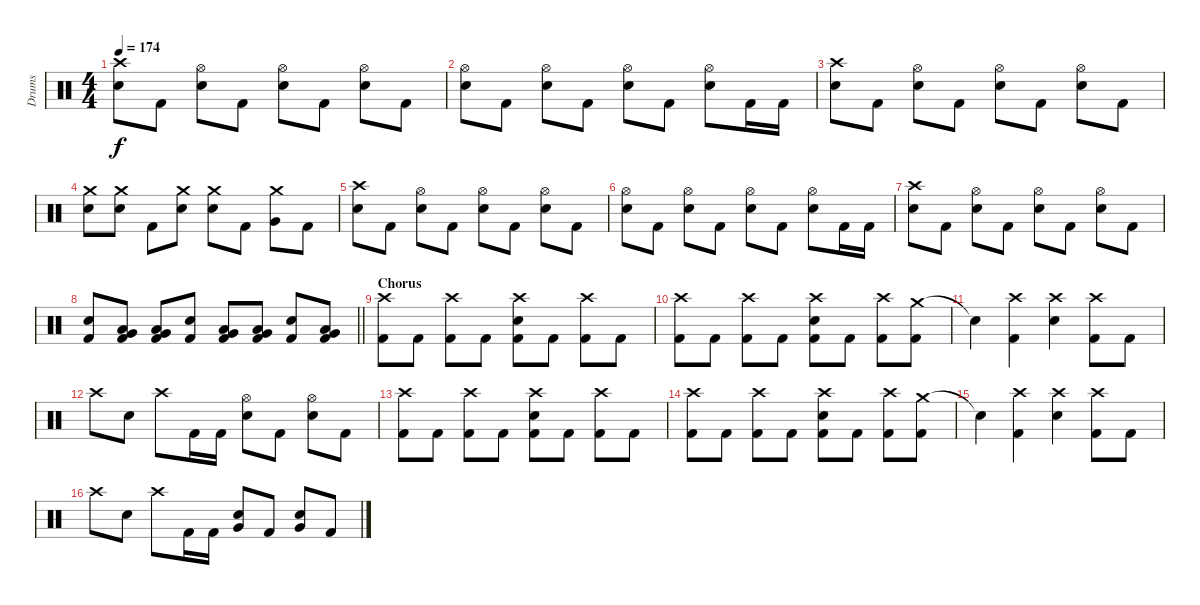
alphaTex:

\track ("Drums" "Drums") {instrument percussion}
\staff {score}
\articulation defaults
\ts (4 4)
\tempo 174
\clef neutral
\ks c
("Crash high (hit)" "Electric Snare (hit)").8{dy f} "Kick (hit) 2".8 ("Hi-Hat (open)" "Electric Snare (hit)").8 "Kick (hit) 2".8 ("Hi-Hat (open)" "Electric Snare (hit)").8 "Kick (hit) 2".8 ("Hi-Hat (open)" "Electric Snare (hit)").8 "Kick (hit) 2".8 |
("Hi-Hat (open)" "Electric Snare (hit)").8 "Kick (hit) 2".8 ("Hi-Hat (open)" "Electric Snare (hit)").8 "Kick (hit) 2".8 ("Hi-Hat (open)" "Electric Snare (hit)").8 "Kick (hit) 2".8 ("Hi-Hat (open)" "Electric Snare (hit)").8 "Kick (hit) 2".16 "Kick (hit) 2".16 |
("Crash high (hit)" "Electric Snare (hit)").8 "Kick (hit) 2".8 ("Hi-Hat (open)" "Electric Snare (hit)").8 "Kick (hit) 2".8 ("Hi-Hat (open)" "Electric Snare (hit)").8 "Kick (hit) 2".8 ("Hi-Hat (open)" "Electric Snare (hit)").8 "Kick (hit) 2".8 |
("Crash medium (hit)" "Electric Snare (hit)").8 ("Crash medium (hit)" "Electric Snare (hit)").8 "Kick (hit) 2".8 ("Crash medium (hit)" "Electric Snare (hit)").8 ("Crash medium (hit)" "Electric Snare (hit)").8 "Kick (hit) 2".8 ("Crash medium (hit)" "Very Low Tom (hit)").8 "Kick (hit) 2".8 |
("Crash high (hit)" "Electric Snare (hit)").8 "Kick (hit) 2".8 ("Hi-Hat (open)" "Electric Snare (hit)").8 "Kick (hit) 2".8 ("Hi-Hat (open)" "Electric Snare (hit)").8 "Kick (hit) 2".8 ("Hi-Hat (open)" "Electric Snare (hit)").8 "Kick (hit) 2".8 |
("Hi-Hat (open)" "Electric Snare (hit)").8 "Kick (hit) 2".8 ("Hi-Hat (open)" "Electric Snare (hit)").8 "Kick (hit) 2".8 ("Hi-Hat (open)" "Electric Snare (hit)").8 "Kick (hit) 2".8 ("Hi-Hat (open)" "Electric Snare (hit)").8 "Kick (hit) 2".16 "Kick (hit) 2".16 |
("Crash high (hit)" "Electric Snare (hit)").8 "Kick (hit) 2".8 ("Hi-Hat (open)" "Electric Snare (hit)").8 "Kick (hit) 2".8 ("Hi-Hat (open)" "Electric Snare (hit)").8 "Kick (hit) 2".8 ("Hi-Hat (open)" "Electric Snare (hit)").8 "Kick (hit) 2".8 |
\barLineRight lightlight
("Electric Snare (hit)" "Kick (hit) 2").8 ("Very Low Tom (hit)" "Low Floor Tom (hit)" "Kick (hit) 2").8 ("Very Low Tom (hit)" "Low Floor Tom (hit)" "Kick (hit) 2").8 ("Electric Snare (hit)" "Kick (hit) 2").8 ("Very Low Tom (hit)" "Low Floor Tom (hit)" "Kick (hit) 2").8 ("Very Low Tom (hit)" "Low Floor Tom (hit)" "Kick (hit) 2").8 ("Electric Snare (hit)" "Kick (hit) 2").8 ("Very Low Tom (hit)" "Low Floor Tom (hit)" "Kick (hit) 2").8 |
\section ("" "Chorus")
("Crash high (hit)" "Kick (hit) 2").8 "Kick (hit) 2".8 ("Crash high (hit)" "Kick (hit) 2").8 "Kick (hit) 2".8 ("Crash high (hit)" "Electric Snare (hit)" "Kick (hit) 2").8 "Kick (hit) 2".8 ("Crash high (hit)" "Kick (hit) 2").8 "Kick (hit) 2".8 |
("Crash high (hit)" "Kick (hit) 2").8 "Kick (hit) 2".8 ("Crash high (hit)" "Kick (hit) 2").8 "Kick (hit) 2".8 ("Crash high (hit)" "Electric Snare (hit)" "Kick (hit) 2").8 "Kick (hit) 2".8 ("Crash high (hit)" "Kick (hit) 2").8 ("Crash medium (hit)" "Kick (hit) 2").8 |
"Snare (hit)"{t}.4 ("Crash high (hit)" "Kick (hit) 2").4 ("Crash high (hit)" "Electric Snare (hit)").4 ("Crash high (hit)" "Kick (hit) 2").8 "Kick (hit) 2".8 |
"Crash high (hit)".8 "Electric Snare (hit)".8 "Crash high (hit)".8 "Kick (hit) 2".16 "Kick (hit) 2".16 ("Hi-Hat (open)" "Electric Snare (hit)").8 "Kick (hit) 2".8 ("Hi-Hat (open)" "Electric Snare (hit)").8 "Kick (hit) 2".8 |
("Crash high (hit)" "Kick (hit) 2").8 "Kick (hit) 2".8 ("Crash high (hit)" "Kick (hit) 2").8 "Kick (hit) 2".8 ("Crash high (hit)" "Electric Snare (hit)" "Kick (hit) 2").8 "Kick (hit) 2".8 ("Crash high (hit)" "Kick (hit) 2").8 "Kick (hit) 2".8 |
("Crash high (hit)" "Kick (hit) 2").8 "Kick (hit) 2".8 ("Crash high (hit)" "Kick (hit) 2").8 "Kick (hit) 2".8 ("Crash high (hit)" "Electric Snare (hit)" "Kick (hit) 2").8 "Kick (hit) 2".8 ("Crash high (hit)" "Kick (hit) 2").8 ("Crash medium (hit)" "Kick (hit) 2").8 |
"Snare (hit)"{t}.4 ("Crash high (hit)" "Kick (hit) 2").4 ("Crash high (hit)" "Electric Snare (hit)").4 ("Crash high (hit)" "Kick (hit) 2").8 "Kick (hit) 2".8 |
"Crash high (hit)".8 "Electric Snare (hit)".8 "Crash high (hit)".8 "Kick (hit) 2".16 "Kick (hit) 2".16 ("Very Low Tom (hit)" "Electric Snare (hit)").8 "Kick (hit) 2".8 ("Very Low Tom (hit)" "Electric Snare (hit)").8 "Kick (hit) 2".8
